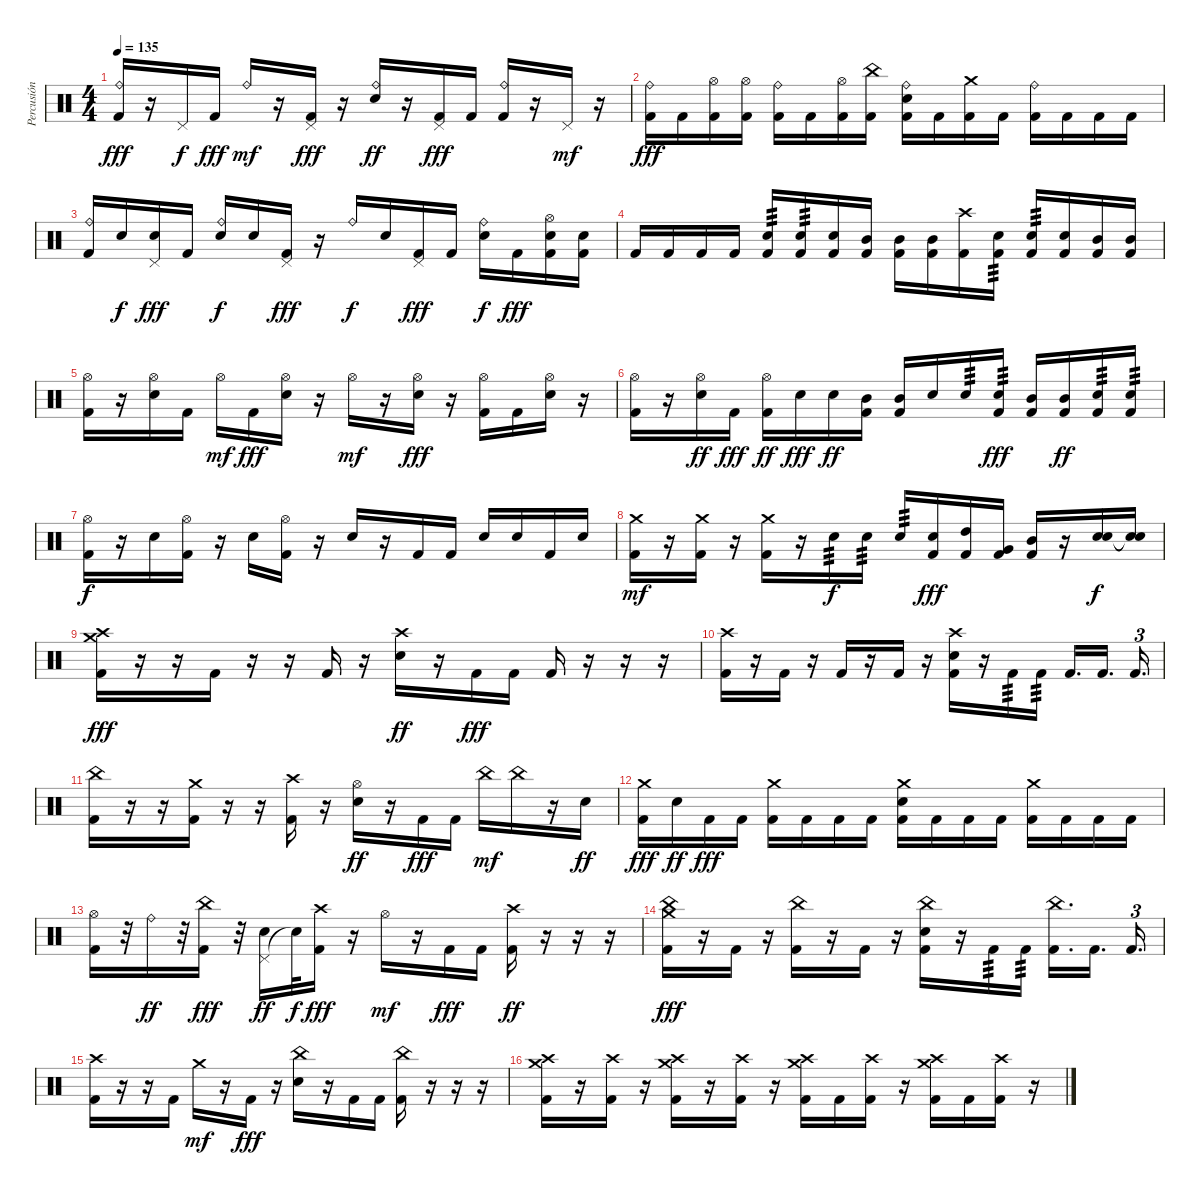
\track ("Percusión" "Percusión") {instrument percussion}
\staff {score}
\articulation defaults
\ts (4 4)
\tempo 135
\clef neutral
\ks c
("Ride (bell)" "Kick (hit) 2").16{dy fff} r.16 "Pedal Hi-Hat (hit)".16{dy f} "Kick (hit) 2".16{dy fff} "Ride (bell)".16{dy mf} r.16 ("Pedal Hi-Hat (hit)" "Kick (hit) 2").16{dy fff} r.16 ("Ride (bell)" "Snare (hit) 2").16{dy ff} r.16 ("Pedal Hi-Hat (hit)" "Kick (hit) 2").16{dy fff} "Kick (hit) 2".16 ("Ride (bell)" "Kick (hit) 2").16 r.16 "Pedal Hi-Hat (hit)".16{dy mf} r.16 |
("Ride (bell)" "Kick (hit) 2").16{dy fff} "Kick (hit) 2".16 ("Hi-Hat (open)" "Kick (hit) 2").16 ("Hi-Hat (open)" "Kick (hit) 2").16 ("Ride (bell)" "Kick (hit) 2").16 "Kick (hit) 2".16 ("Hi-Hat (open)" "Kick (hit) 2").16 ("China (hit)" "Kick (hit) 2").16 ("Ride (bell)" "Snare (hit) 2" "Kick (hit) 2").16 "Kick (hit) 2".16 ("Crash medium (hit)" "Kick (hit) 2").16 "Kick (hit) 2".16 ("Ride (bell)" "Kick (hit) 2").16 "Kick (hit) 2".16 "Kick (hit) 2".16 "Kick (hit) 2".16 |
("Ride (bell)" "Kick (hit) 2").16 "Snare (hit) 2".16{dy f} ("Pedal Hi-Hat (hit)" "Snare (hit) 2").16{dy fff} "Kick (hit) 2".16 ("Ride (bell)" "Snare (hit) 2").16{dy f} "Snare (hit) 2".16 ("Pedal Hi-Hat (hit)" "Kick (hit) 2").16{dy fff} r.16 "Ride (bell)".16{dy f} "Snare (hit) 2".16 ("Pedal Hi-Hat (hit)" "Kick (hit) 2").16{dy fff} "Kick (hit) 2".16 ("Ride (bell)" "Snare (hit) 2").16{dy f} "Kick (hit) 2".16{dy fff} ("Hi-Hat (open)" "Snare (hit) 2" "Kick (hit) 2").16 ("Snare (hit) 2" "Kick (hit) 2").16 |
"Kick (hit) 2".16 "Kick (hit) 2".16 "Kick (hit) 2".16 "Kick (hit) 2".16 ("Snare (hit) 2" "Kick (hit) 2").16{tp 3} ("Snare (hit) 2" "Kick (hit) 2").16{tp 3} ("Snare (hit) 2" "Kick (hit) 2").16 ("Mid Tom (hit)" "Kick (hit) 2").16 ("Mid Tom (hit)" "Kick (hit) 2").16 ("Mid Tom (hit)" "Kick (hit) 2").16 ("Crash high (hit)" "Kick (hit) 2").16 ("Snare (hit) 2" "Kick (hit) 2").16{tp 3} ("Snare (hit) 2" "Kick (hit) 2").16{tp 3} ("Snare (hit) 2" "Kick (hit) 2").16 ("Mid Tom (hit)" "Kick (hit) 2").16 ("Mid Tom (hit)" "Kick (hit) 2").16 |
("Hi-Hat (open)" "Kick (hit) 2").16 r.16 ("Hi-Hat (open)" "Snare (hit) 2").16 "Kick (hit) 2".16 "Hi-Hat (open)".16{dy mf} "Kick (hit) 2".16{dy fff} ("Hi-Hat (open)" "Snare (hit) 2").16 r.16 "Hi-Hat (open)".16{dy mf} r.16 ("Hi-Hat (open)" "Snare (hit) 2").16{dy fff} r.16 ("Hi-Hat (open)" "Kick (hit) 2").16 "Kick (hit) 2".16 ("Hi-Hat (open)" "Snare (hit) 2").16 r.16 |
("Hi-Hat (open)" "Kick (hit) 2").16 r.16 ("Hi-Hat (open)" "Snare (hit) 2").16{dy ff} "Kick (hit) 2".16{dy fff} ("Hi-Hat (open)" "Kick (hit) 2").16{dy ff} "Snare (hit) 2".16{dy fff} "Snare (hit) 2".16{dy ff} ("Mid Tom (hit)" "Kick (hit) 2").16 ("Mid Tom (hit)" "Kick (hit) 2").16 "Snare (hit) 2".16 "Snare (hit) 2".16{tp 3} ("Snare (hit) 2" "Kick (hit) 2").16{tp 3 dy fff} ("Mid Tom (hit)" "Kick (hit) 2").16 ("Mid Tom (hit)" "Kick (hit) 2").16{dy ff} ("Snare (hit) 2" "Kick (hit) 2").16{tp 3} ("Snare (hit) 2" "Kick (hit) 2").16{tp 3} |
("Hi-Hat (open)" "Kick (hit) 2").16{dy f} r.16 "Snare (hit) 2".16 ("Hi-Hat (open)" "Kick (hit) 2").16 r.16 "Snare (hit) 2".16 ("Hi-Hat (open)" "Kick (hit) 2").16 r.16 "Snare (hit) 2".16 r.16 "Kick (hit) 2".16 "Kick (hit) 2".16 "Snare (hit) 2".16 "Snare (hit) 2".16 "Kick (hit) 2".16 "Snare (hit) 2".16 |
("Crash medium (hit)" "Kick (hit) 2").16{dy mf} r.16 ("Crash medium (hit)" "Kick (hit) 2").16 r.16 ("Crash medium (hit)" "Kick (hit) 2").16 r.16 "Snare (hit) 2".16{tp 3 dy f} "Snare (hit) 2".16{tp 3} "Snare (hit) 2".16{tp 3} ("Snare (hit) 2" "Kick (hit) 2").16{dy fff} ("High Tom (hit)" "Kick (hit) 2").16 ("Very Low Tom (hit)" "Kick (hit) 2").16 ("Mid Tom (hit)" "Kick (hit) 2").16 r.16 ("Snare (hit) 2" "Snare (hit) 2").16{dy f} ("Snare (hit)"{t} "Snare (hit)"{t}).16 |
("Crash high (hit)" "Crash medium (hit)" "Kick (hit) 2").16{dy fff} r.16 r.16 "Kick (hit) 2".16 r.16 r.16 "Kick (hit) 2".16 r.16 ("Crash high (hit)" "Snare (hit) 2").16{dy ff} r.16 "Kick (hit) 2".16{dy fff} "Kick (hit) 2".16 "Kick (hit) 2".16 r.16 r.16 r.16 |
("Crash high (hit)" "Kick (hit) 2").16 r.16 "Kick (hit) 2".16 r.16 "Kick (hit) 2".16 r.16 "Kick (hit) 2".16 r.16 ("Crash high (hit)" "Snare (hit) 2" "Kick (hit) 2").16 r.16 "Kick (hit) 2".16{tp 3} "Kick (hit) 2".16{tp 3} "Kick (hit) 2".16{d} "Kick (hit) 2".16{d beam splitsecondary} "Kick (hit) 2".16{d tu (3 2)} |
("China (hit)" "Kick (hit) 2").16 r.16 r.16 ("Crash medium (hit)" "Kick (hit) 2").16 r.16 r.16 ("Crash high (hit)" "Kick (hit) 2").16 r.16 ("Hi-Hat (open)" "Snare (hit) 2").16{dy ff} r.16 "Kick (hit) 2".16{dy fff} "Kick (hit) 2".16 "China (hit)".16{dy mf} "China (hit)".16 r.16 "Snare (hit) 2".16{dy ff} |
("Crash medium (hit)" "Kick (hit) 2").16{dy fff} "Snare (hit) 2".16{dy ff} "Kick (hit) 2".16{dy fff} "Kick (hit) 2".16 ("Crash medium (hit)" "Kick (hit) 2").16 "Kick (hit) 2".16 "Kick (hit) 2".16 "Kick (hit) 2".16 ("Crash medium (hit)" "Snare (hit) 2" "Kick (hit) 2").16 "Kick (hit) 2".16 "Kick (hit) 2".16 "Kick (hit) 2".16 ("Crash medium (hit)" "Kick (hit) 2").16 "Kick (hit) 2".16 "Kick (hit) 2".16 "Kick (hit) 2".16 |
("Hi-Hat (open)" "Kick (hit) 2").16 r.32 "Ride (bell)".16{dy ff} r.32 ("China (hit)" "Kick (hit) 2").16{dy fff} r.32 ("Pedal Hi-Hat (hit)" "Snare (hit) 2").16{dy ff} "Snare (hit) 2"{t}.32{dy f} ("Crash high (hit)" "Kick (hit) 2").16{dy fff} r.16 "Hi-Hat (open)".16{dy mf} r.16 "Kick (hit) 2".16{dy fff} "Kick (hit) 2".16 ("Crash high (hit)" "Kick (hit) 2").16{dy ff} r.16 r.16 r.16 |
("China (hit)" "Crash medium (hit)" "Kick (hit) 2").16{dy fff} r.16 "Kick (hit) 2".16 r.16 ("China (hit)" "Kick (hit) 2").16 r.16 "Kick (hit) 2".16 r.16 ("China (hit)" "Snare (hit) 2" "Kick (hit) 2").16 r.16 "Kick (hit) 2".16{tp 3} "Kick (hit) 2".16{tp 3} ("China (hit)" "Kick (hit) 2").16{d} "Kick (hit) 2".16{d beam splitsecondary} "Kick (hit) 2".16{d tu (3 2)} |
("Crash high (hit)" "Kick (hit) 2").16 r.16 r.16 "Kick (hit) 2".16 "Crash medium (hit)".16{dy mf} r.16 "Kick (hit) 2".16{dy fff} r.16 ("China (hit)" "Snare (hit) 2").16 r.16 "Kick (hit) 2".16 "Kick (hit) 2".16 ("China (hit)" "Kick (hit) 2").16 r.16 r.16 r.16 |
("Crash high (hit)" "Crash medium (hit)" "Kick (hit) 2").16 r.16 ("Crash high (hit)" "Kick (hit) 2").16 r.16 ("Crash high (hit)" "Crash medium (hit)" "Kick (hit) 2").16 r.16 ("Crash high (hit)" "Kick (hit) 2").16 r.16 ("Crash high (hit)" "Crash medium (hit)" "Kick (hit) 2").16 "Kick (hit) 2".16 ("Crash high (hit)" "Kick (hit) 2").16 r.16 ("Crash high (hit)" "Crash medium (hit)" "Kick (hit) 2").16 "Kick (hit) 2".16 ("Crash high (hit)" "Kick (hit) 2").16 r.16
